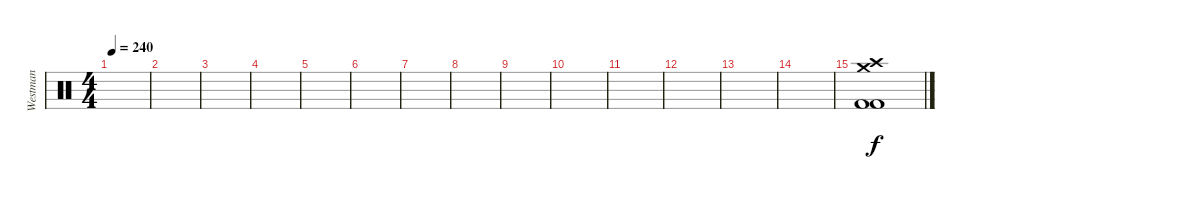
\track ("Westman" "Westman") {instrument percussion}
\staff {score}
\articulation defaults
\ts (4 4)
\tempo 240
\clef neutral
\ks c
|
|
|
|
|
|
|
|
|
|
|
|
|
|
("Kick (hit) 2" "Kick (hit) 2" "Crash high (hit)" "Crash medium (hit)").1
